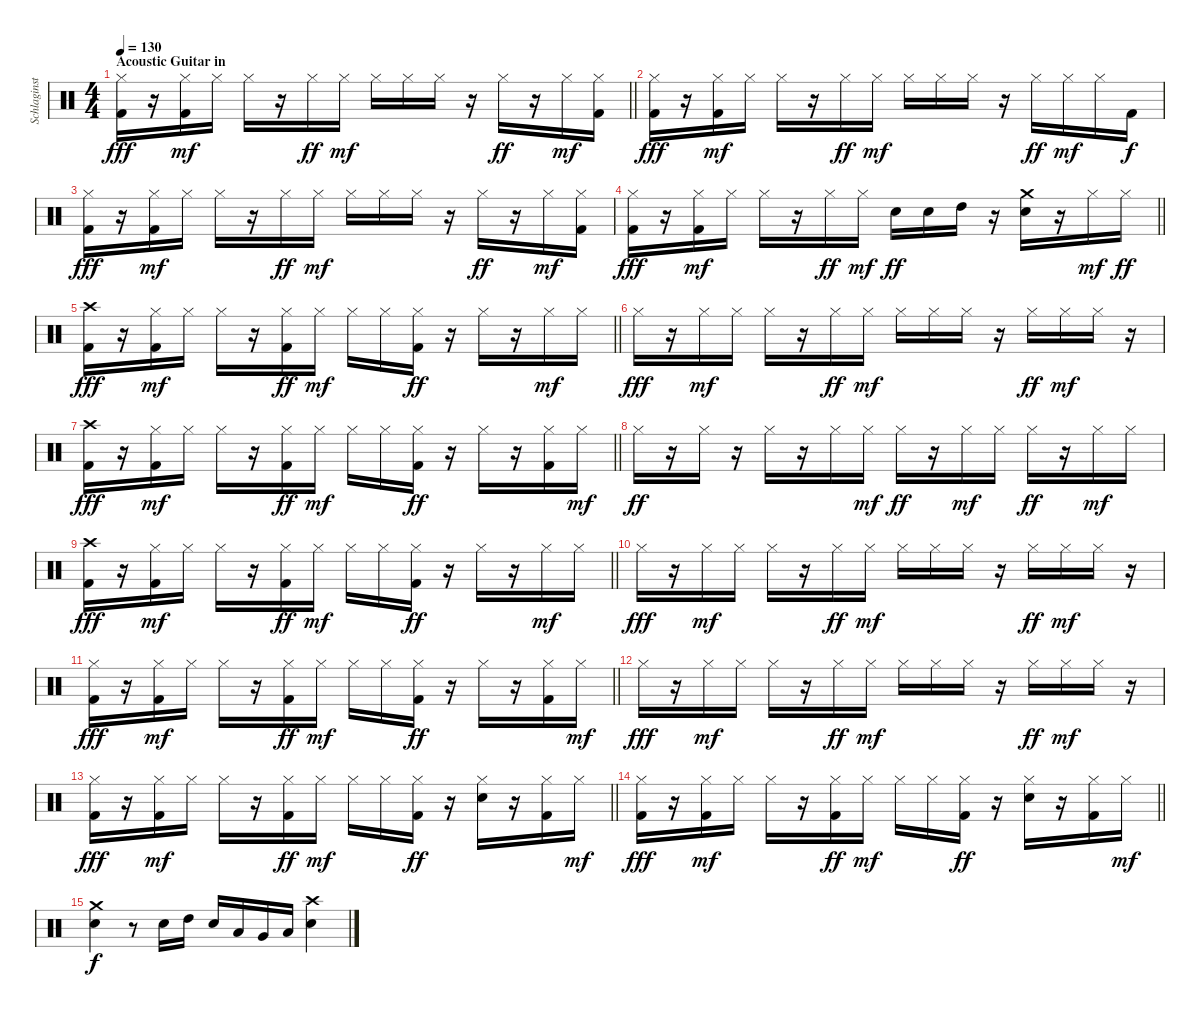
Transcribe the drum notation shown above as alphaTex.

\track ("Schlaginstrumente - Auswahl" "Schlaginst") {instrument percussion}
\staff {score}
\articulation defaults
\ts (4 4)
\section ("" "Acoustic Guitar in")
\tempo 130
\clef neutral
\barLineRight lightlight
\ks c
("Hi-Hat (closed)" "Kick (hit) 2").16{dy fff} r.16 ("Hi-Hat (closed)" "Kick (hit) 2").16{dy mf} "Hi-Hat (closed)".16 "Hi-Hat (closed)".16 r.16 "Hi-Hat (closed)".16{dy ff} "Hi-Hat (closed)".16{dy mf} "Hi-Hat (closed)".16 "Hi-Hat (closed)".16 "Hi-Hat (closed)".16 r.16 "Hi-Hat (closed)".16{dy ff} r.16 "Hi-Hat (closed)".16{dy mf} ("Hi-Hat (closed)" "Kick (hit) 2").16 |
("Hi-Hat (closed)" "Kick (hit) 2").16{dy fff} r.16 ("Hi-Hat (closed)" "Kick (hit) 2").16{dy mf} "Hi-Hat (closed)".16 "Hi-Hat (closed)".16 r.16 "Hi-Hat (closed)".16{dy ff} "Hi-Hat (closed)".16{dy mf} "Hi-Hat (closed)".16 "Hi-Hat (closed)".16 "Hi-Hat (closed)".16 r.16 "Hi-Hat (closed)".16{dy ff} "Hi-Hat (closed)".16{dy mf} "Hi-Hat (closed)".16 "Kick (hit) 2".16{dy f} |
("Hi-Hat (closed)" "Kick (hit) 2").16{dy fff} r.16 ("Hi-Hat (closed)" "Kick (hit) 2").16{dy mf} "Hi-Hat (closed)".16 "Hi-Hat (closed)".16 r.16 "Hi-Hat (closed)".16{dy ff} "Hi-Hat (closed)".16{dy mf} "Hi-Hat (closed)".16 "Hi-Hat (closed)".16 "Hi-Hat (closed)".16 r.16 "Hi-Hat (closed)".16{dy ff} r.16 "Hi-Hat (closed)".16{dy mf} ("Hi-Hat (closed)" "Kick (hit) 2").16 |
\barLineRight lightlight
("Hi-Hat (closed)" "Kick (hit) 2").16{dy fff} r.16 ("Hi-Hat (closed)" "Kick (hit) 2").16{dy mf} "Hi-Hat (closed)".16 "Hi-Hat (closed)".16 r.16 "Hi-Hat (closed)".16{dy ff} "Hi-Hat (closed)".16{dy mf} "Electric Snare (hit)".16{dy ff} "Electric Snare (hit)".16 "High Tom (hit)".16 r.16 ("Crash medium (hit)" "Electric Snare (hit)").16 r.16 "Hi-Hat (closed)".16{dy mf} "Hi-Hat (closed)".16{dy ff} |
\barLineRight lightlight
("Crash high (hit)" "Kick (hit) 2").16{dy fff} r.16 ("Hi-Hat (closed)" "Kick (hit) 2").16{dy mf} "Hi-Hat (closed)".16 "Hi-Hat (closed)".16 r.16 ("Hi-Hat (closed)" "Kick (hit) 2").16{dy ff} "Hi-Hat (closed)".16{dy mf} "Hi-Hat (closed)".16 "Hi-Hat (closed)".16 ("Hi-Hat (closed)" "Kick (hit) 2").16{dy ff} r.16 "Hi-Hat (closed)".16 r.16 "Hi-Hat (closed)".16{dy mf} "Hi-Hat (closed)".16 |
"Hi-Hat (closed)".16{dy fff} r.16 "Hi-Hat (closed)".16{dy mf} "Hi-Hat (closed)".16 "Hi-Hat (closed)".16 r.16 "Hi-Hat (closed)".16{dy ff} "Hi-Hat (closed)".16{dy mf} "Hi-Hat (closed)".16 "Hi-Hat (closed)".16 "Hi-Hat (closed)".16 r.16 "Hi-Hat (closed)".16{dy ff} "Hi-Hat (closed)".16{dy mf} "Hi-Hat (closed)".16 r.16 |
\barLineRight lightlight
("Crash high (hit)" "Kick (hit) 2").16{dy fff} r.16 ("Hi-Hat (closed)" "Kick (hit) 2").16{dy mf} "Hi-Hat (closed)".16 "Hi-Hat (closed)".16 r.16 ("Hi-Hat (closed)" "Kick (hit) 2").16{dy ff} "Hi-Hat (closed)".16{dy mf} "Hi-Hat (closed)".16 "Hi-Hat (closed)".16 ("Hi-Hat (closed)" "Kick (hit) 2").16{dy ff} r.16 "Hi-Hat (closed)".16 r.16 ("Hi-Hat (closed)" "Kick (hit) 2").16 "Hi-Hat (closed)".16{dy mf} |
"Hi-Hat (closed)".16{dy ff} r.16 "Hi-Hat (closed)".16 r.16 "Hi-Hat (closed)".16 r.16 "Hi-Hat (closed)".16 "Hi-Hat (closed)".16{dy mf} "Hi-Hat (closed)".16{dy ff} r.16 "Hi-Hat (closed)".16{dy mf} "Hi-Hat (closed)".16 "Hi-Hat (closed)".16{dy ff} r.16 "Hi-Hat (closed)".16{dy mf} "Hi-Hat (closed)".16 |
\barLineRight lightlight
("Crash high (hit)" "Kick (hit) 2").16{dy fff} r.16 ("Hi-Hat (closed)" "Kick (hit) 2").16{dy mf} "Hi-Hat (closed)".16 "Hi-Hat (closed)".16 r.16 ("Hi-Hat (closed)" "Kick (hit) 2").16{dy ff} "Hi-Hat (closed)".16{dy mf} "Hi-Hat (closed)".16 "Hi-Hat (closed)".16 ("Hi-Hat (closed)" "Kick (hit) 2").16{dy ff} r.16 "Hi-Hat (closed)".16 r.16 "Hi-Hat (closed)".16{dy mf} "Hi-Hat (closed)".16 |
"Hi-Hat (closed)".16{dy fff} r.16 "Hi-Hat (closed)".16{dy mf} "Hi-Hat (closed)".16 "Hi-Hat (closed)".16 r.16 "Hi-Hat (closed)".16{dy ff} "Hi-Hat (closed)".16{dy mf} "Hi-Hat (closed)".16 "Hi-Hat (closed)".16 "Hi-Hat (closed)".16 r.16 "Hi-Hat (closed)".16{dy ff} "Hi-Hat (closed)".16{dy mf} "Hi-Hat (closed)".16 r.16 |
\barLineRight lightlight
("Hi-Hat (closed)" "Kick (hit) 2").16{dy fff} r.16 ("Hi-Hat (closed)" "Kick (hit) 2").16{dy mf} "Hi-Hat (closed)".16 "Hi-Hat (closed)".16 r.16 ("Hi-Hat (closed)" "Kick (hit) 2").16{dy ff} "Hi-Hat (closed)".16{dy mf} "Hi-Hat (closed)".16 "Hi-Hat (closed)".16 ("Hi-Hat (closed)" "Kick (hit) 2").16{dy ff} r.16 "Hi-Hat (closed)".16 r.16 ("Hi-Hat (closed)" "Kick (hit) 2").16 "Hi-Hat (closed)".16{dy mf} |
"Hi-Hat (closed)".16{dy fff} r.16 "Hi-Hat (closed)".16{dy mf} "Hi-Hat (closed)".16 "Hi-Hat (closed)".16 r.16 "Hi-Hat (closed)".16{dy ff} "Hi-Hat (closed)".16{dy mf} "Hi-Hat (closed)".16 "Hi-Hat (closed)".16 "Hi-Hat (closed)".16 r.16 "Hi-Hat (closed)".16{dy ff} "Hi-Hat (closed)".16{dy mf} "Hi-Hat (closed)".16 r.16 |
\barLineRight lightlight
("Hi-Hat (closed)" "Kick (hit) 2").16{dy fff} r.16 ("Hi-Hat (closed)" "Kick (hit) 2").16{dy mf} "Hi-Hat (closed)".16 "Hi-Hat (closed)".16 r.16 ("Hi-Hat (closed)" "Kick (hit) 2").16{dy ff} "Hi-Hat (closed)".16{dy mf} "Hi-Hat (closed)".16 "Hi-Hat (closed)".16 ("Hi-Hat (closed)" "Kick (hit) 2").16{dy ff} r.16 ("Hi-Hat (closed)" "Electric Snare (hit)").16 r.16 ("Hi-Hat (closed)" "Kick (hit) 2").16 "Hi-Hat (closed)".16{dy mf} |
\barLineRight lightlight
("Hi-Hat (closed)" "Kick (hit) 2").16{dy fff} r.16 ("Hi-Hat (closed)" "Kick (hit) 2").16{dy mf} "Hi-Hat (closed)".16 "Hi-Hat (closed)".16 r.16 ("Hi-Hat (closed)" "Kick (hit) 2").16{dy ff} "Hi-Hat (closed)".16{dy mf} "Hi-Hat (closed)".16 "Hi-Hat (closed)".16 ("Hi-Hat (closed)" "Kick (hit) 2").16{dy ff} r.16 ("Hi-Hat (closed)" "Electric Snare (hit)").16 r.16 ("Hi-Hat (closed)" "Kick (hit) 2").16 "Hi-Hat (closed)".16{dy mf} |
("Crash medium (hit)" "Electric Snare (hit)").4{dy f} r.8 "Electric Snare (hit)".16 "High Tom (hit)".16 "Electric Snare (hit)".16 "Low Tom (hit)".16 "Very Low Tom (hit)".16 "Low Floor Tom (hit)".16 ("Crash high (hit)" "Electric Snare (hit)").4
